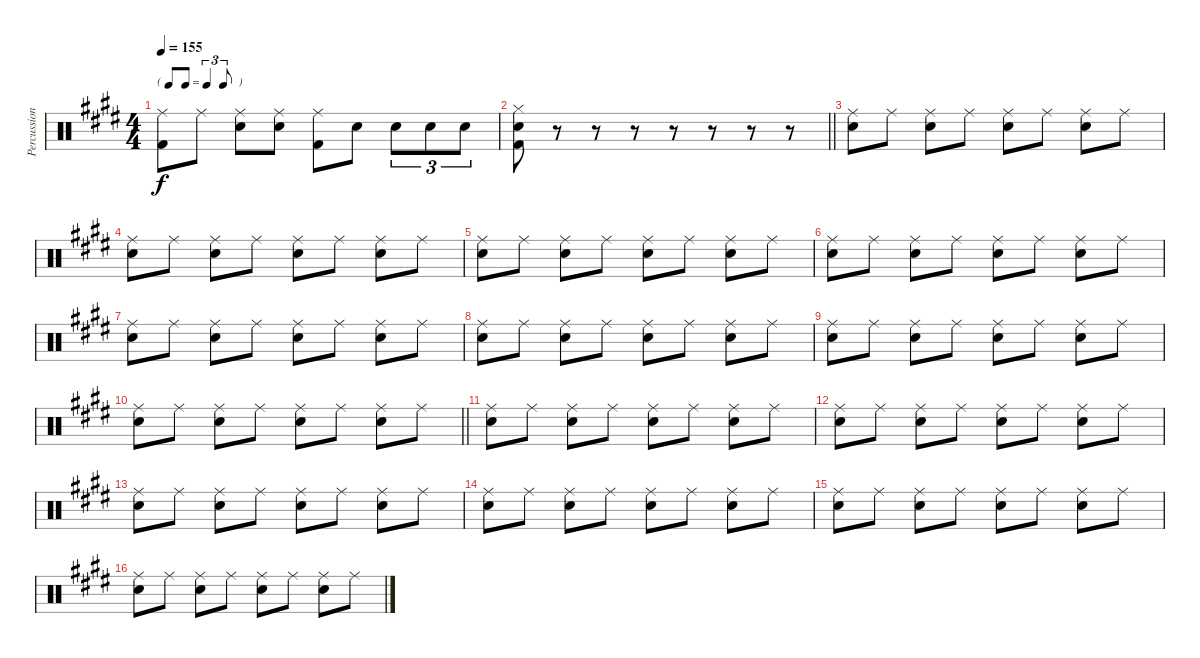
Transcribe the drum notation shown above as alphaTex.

\track ("Percussion" "Percussion") {instrument percussion}
\staff {score}
\articulation defaults
\ts (4 4)
\tf triplet8th
\tempo 155
\clef neutral
\ks e
("Ride (middle)" "Kick (hit) 2").8{dy f} "Ride (middle)".8 ("Ride (middle)" "Snare (hit) 2").8 ("Ride (middle)" "Snare (hit) 2").8 ("Ride (middle)" "Kick (hit) 2").8 "Snare (hit) 2".8 "Snare (hit) 2".8{tu (3 2)} "Snare (hit) 2".8{tu (3 2)} "Snare (hit) 2".8{tu (3 2)} |
\barLineRight lightlight
("Hi-Hat (closed)" "Snare (hit) 2" "Kick (hit) 2").8 r.8 r.8 r.8 r.8 r.8 r.8 r.8 |
("Ride (middle)" "Snare (hit) 2").8 "Ride (middle)".8 ("Ride (middle)" "Snare (hit) 2").8 "Ride (middle)".8 ("Ride (middle)" "Snare (hit) 2").8 "Ride (middle)".8 ("Ride (middle)" "Snare (hit) 2").8 "Ride (middle)".8 |
("Ride (middle)" "Snare (hit) 2").8 "Ride (middle)".8 ("Ride (middle)" "Snare (hit) 2").8 "Ride (middle)".8 ("Ride (middle)" "Snare (hit) 2").8 "Ride (middle)".8 ("Ride (middle)" "Snare (hit) 2").8 "Ride (middle)".8 |
("Ride (middle)" "Snare (hit) 2").8 "Ride (middle)".8 ("Ride (middle)" "Snare (hit) 2").8 "Ride (middle)".8 ("Ride (middle)" "Snare (hit) 2").8 "Ride (middle)".8 ("Ride (middle)" "Snare (hit) 2").8 "Ride (middle)".8 |
("Ride (middle)" "Snare (hit) 2").8 "Ride (middle)".8 ("Ride (middle)" "Snare (hit) 2").8 "Ride (middle)".8 ("Ride (middle)" "Snare (hit) 2").8 "Ride (middle)".8 ("Ride (middle)" "Snare (hit) 2").8 "Ride (middle)".8 |
("Ride (middle)" "Snare (hit) 2").8 "Ride (middle)".8 ("Ride (middle)" "Snare (hit) 2").8 "Ride (middle)".8 ("Ride (middle)" "Snare (hit) 2").8 "Ride (middle)".8 ("Ride (middle)" "Snare (hit) 2").8 "Ride (middle)".8 |
("Ride (middle)" "Snare (hit) 2").8 "Ride (middle)".8 ("Ride (middle)" "Snare (hit) 2").8 "Ride (middle)".8 ("Ride (middle)" "Snare (hit) 2").8 "Ride (middle)".8 ("Ride (middle)" "Snare (hit) 2").8 "Ride (middle)".8 |
("Ride (middle)" "Snare (hit) 2").8 "Ride (middle)".8 ("Ride (middle)" "Snare (hit) 2").8 "Ride (middle)".8 ("Ride (middle)" "Snare (hit) 2").8 "Ride (middle)".8 ("Ride (middle)" "Snare (hit) 2").8 "Ride (middle)".8 |
\barLineRight lightlight
("Ride (middle)" "Snare (hit) 2").8 "Ride (middle)".8 ("Ride (middle)" "Snare (hit) 2").8 "Ride (middle)".8 ("Ride (middle)" "Snare (hit) 2").8 "Ride (middle)".8 ("Ride (middle)" "Snare (hit) 2").8 "Ride (middle)".8 |
("Ride (middle)" "Snare (hit) 2").8 "Ride (middle)".8 ("Ride (middle)" "Snare (hit) 2").8 "Ride (middle)".8 ("Ride (middle)" "Snare (hit) 2").8 "Ride (middle)".8 ("Ride (middle)" "Snare (hit) 2").8 "Ride (middle)".8 |
("Ride (middle)" "Snare (hit) 2").8 "Ride (middle)".8 ("Ride (middle)" "Snare (hit) 2").8 "Ride (middle)".8 ("Ride (middle)" "Snare (hit) 2").8 "Ride (middle)".8 ("Ride (middle)" "Snare (hit) 2").8 "Ride (middle)".8 |
("Ride (middle)" "Snare (hit) 2").8 "Ride (middle)".8 ("Ride (middle)" "Snare (hit) 2").8 "Ride (middle)".8 ("Ride (middle)" "Snare (hit) 2").8 "Ride (middle)".8 ("Ride (middle)" "Snare (hit) 2").8 "Ride (middle)".8 |
("Ride (middle)" "Snare (hit) 2").8 "Ride (middle)".8 ("Ride (middle)" "Snare (hit) 2").8 "Ride (middle)".8 ("Ride (middle)" "Snare (hit) 2").8 "Ride (middle)".8 ("Ride (middle)" "Snare (hit) 2").8 "Ride (middle)".8 |
("Ride (middle)" "Snare (hit) 2").8 "Ride (middle)".8 ("Ride (middle)" "Snare (hit) 2").8 "Ride (middle)".8 ("Ride (middle)" "Snare (hit) 2").8 "Ride (middle)".8 ("Ride (middle)" "Snare (hit) 2").8 "Ride (middle)".8 |
("Ride (middle)" "Snare (hit) 2").8 "Ride (middle)".8 ("Ride (middle)" "Snare (hit) 2").8 "Ride (middle)".8 ("Ride (middle)" "Snare (hit) 2").8 "Ride (middle)".8 ("Ride (middle)" "Snare (hit) 2").8 "Ride (middle)".8
